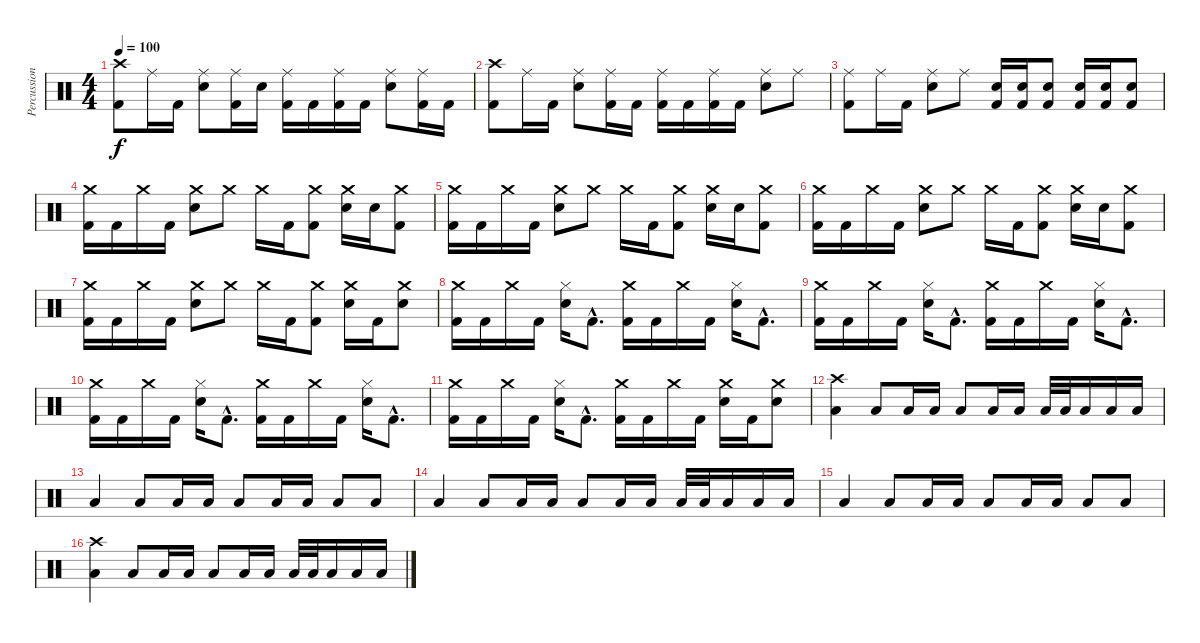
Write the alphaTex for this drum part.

\track ("Percussions" "Percussion") {instrument percussion}
\staff {score}
\articulation defaults
\ts (4 4)
\tempo 100
\clef neutral
\ks c
("Crash high (hit)" "Kick (hit) 2").8{dy f} "Ride (middle)".16 "Kick (hit) 2".16 ("Electric Snare (hit)" "Ride (middle)").8 ("Ride (middle)" "Kick (hit) 2").16 "Electric Snare (hit)".16 ("Ride (middle)" "Kick (hit) 2").16 "Kick (hit) 2".16 ("Ride (middle)" "Kick (hit) 2").16 "Kick (hit) 2".16 ("Electric Snare (hit)" "Ride (middle)").8 ("Ride (middle)" "Kick (hit) 2").16 "Kick (hit) 2".16 |
("Crash high (hit)" "Kick (hit) 2").8 "Ride (middle)".16 "Kick (hit) 2".16 ("Electric Snare (hit)" "Ride (middle)").8 ("Ride (middle)" "Kick (hit) 2").16 "Kick (hit) 2".16 ("Ride (middle)" "Kick (hit) 2").16 "Kick (hit) 2".16 ("Ride (middle)" "Kick (hit) 2").16 "Kick (hit) 2".16 ("Electric Snare (hit)" "Ride (middle)").8 "Ride (middle)".8 |
("Ride (middle)" "Kick (hit) 2").8 "Ride (middle)".16 "Kick (hit) 2".16 ("Electric Snare (hit)" "Ride (middle)").8 "Ride (middle)".8 ("Electric Snare (hit)" "Kick (hit) 2").16 ("Electric Snare (hit)" "Kick (hit) 2").16 ("Electric Snare (hit)" "Kick (hit) 2").8 ("Electric Snare (hit)" "Kick (hit) 2").16 ("Electric Snare (hit)" "Kick (hit) 2").16 ("Electric Snare (hit)" "Kick (hit) 2").8 |
("Crash medium (hit)" "Kick (hit) 2").16 "Kick (hit) 2".16 "Crash medium (hit)".16 "Kick (hit) 2".16 ("Electric Snare (hit)" "Crash medium (hit)").8 "Crash medium (hit)".8 "Crash medium (hit)".16 "Kick (hit) 2".16 ("Crash medium (hit)" "Kick (hit) 2").8 ("Electric Snare (hit)" "Crash medium (hit)").16 "Electric Snare (hit)".16 ("Crash medium (hit)" "Kick (hit) 2").8 |
("Crash medium (hit)" "Kick (hit) 2").16 "Kick (hit) 2".16 "Crash medium (hit)".16 "Kick (hit) 2".16 ("Electric Snare (hit)" "Crash medium (hit)").8 "Crash medium (hit)".8 "Crash medium (hit)".16 "Kick (hit) 2".16 ("Crash medium (hit)" "Kick (hit) 2").8 ("Electric Snare (hit)" "Crash medium (hit)").16 "Electric Snare (hit)".16 ("Crash medium (hit)" "Kick (hit) 2").8 |
("Crash medium (hit)" "Kick (hit) 2").16 "Kick (hit) 2".16 "Crash medium (hit)".16 "Kick (hit) 2".16 ("Electric Snare (hit)" "Crash medium (hit)").8 "Crash medium (hit)".8 "Crash medium (hit)".16 "Kick (hit) 2".16 ("Crash medium (hit)" "Kick (hit) 2").8 ("Electric Snare (hit)" "Crash medium (hit)").16 "Electric Snare (hit)".16 ("Crash medium (hit)" "Kick (hit) 2").8 |
("Crash medium (hit)" "Kick (hit) 2").16 "Kick (hit) 2".16 "Crash medium (hit)".16 "Kick (hit) 2".16 ("Electric Snare (hit)" "Crash medium (hit)").8 "Crash medium (hit)".8 "Crash medium (hit)".16 "Kick (hit) 2".16 ("Crash medium (hit)" "Kick (hit) 2").8 ("Electric Snare (hit)" "Crash medium (hit)").16 "Kick (hit) 2".16 ("Electric Snare (hit)" "Crash medium (hit)").8 |
("Crash medium (hit)" "Kick (hit) 2").16 "Kick (hit) 2".16 "Crash medium (hit)".16 "Kick (hit) 2".16 ("Electric Snare (hit)" "Hi-Hat (closed)").16 "Kick (hit) 2"{hac}.8{d} ("Crash medium (hit)" "Kick (hit) 2").16 "Kick (hit) 2".16 "Crash medium (hit)".16 "Kick (hit) 2".16 ("Electric Snare (hit)" "Hi-Hat (closed)").16 "Kick (hit) 2"{hac}.8{d} |
("Crash medium (hit)" "Kick (hit) 2").16 "Kick (hit) 2".16 "Crash medium (hit)".16 "Kick (hit) 2".16 ("Electric Snare (hit)" "Hi-Hat (closed)").16 "Kick (hit) 2"{hac}.8{d} ("Crash medium (hit)" "Kick (hit) 2").16 "Kick (hit) 2".16 "Crash medium (hit)".16 "Kick (hit) 2".16 ("Electric Snare (hit)" "Hi-Hat (closed)").16 "Kick (hit) 2"{hac}.8{d} |
("Crash medium (hit)" "Kick (hit) 2").16 "Kick (hit) 2".16 "Crash medium (hit)".16 "Kick (hit) 2".16 ("Electric Snare (hit)" "Hi-Hat (closed)").16 "Kick (hit) 2"{hac}.8{d} ("Crash medium (hit)" "Kick (hit) 2").16 "Kick (hit) 2".16 "Crash medium (hit)".16 "Kick (hit) 2".16 ("Electric Snare (hit)" "Hi-Hat (closed)").16 "Kick (hit) 2"{hac}.8{d} |
("Crash medium (hit)" "Kick (hit) 2").16 "Kick (hit) 2".16 "Crash medium (hit)".16 "Kick (hit) 2".16 ("Electric Snare (hit)" "Hi-Hat (closed)").16 "Kick (hit) 2"{hac}.8{d} ("Crash medium (hit)" "Kick (hit) 2").16 "Kick (hit) 2".16 "Crash medium (hit)".16 "Kick (hit) 2".16 ("Electric Snare (hit)" "Crash medium (hit)").16 "Kick (hit) 2".16 ("Electric Snare (hit)" "Crash medium (hit)").8 |
("Crash high (hit)" "Low Floor Tom (hit)").4 "Low Floor Tom (hit)".8 "Low Floor Tom (hit)".16 "Low Floor Tom (hit)".16 "Low Floor Tom (hit)".8 "Low Floor Tom (hit)".16 "Low Floor Tom (hit)".16 "Low Floor Tom (hit)".32 "Low Floor Tom (hit)".32 "Low Floor Tom (hit)".16 "Low Floor Tom (hit)".16 "Low Floor Tom (hit)".16 |
"Low Floor Tom (hit)".4 "Low Floor Tom (hit)".8 "Low Floor Tom (hit)".16 "Low Floor Tom (hit)".16 "Low Floor Tom (hit)".8 "Low Floor Tom (hit)".16 "Low Floor Tom (hit)".16 "Low Floor Tom (hit)".8 "Low Floor Tom (hit)".8 |
"Low Floor Tom (hit)".4 "Low Floor Tom (hit)".8 "Low Floor Tom (hit)".16 "Low Floor Tom (hit)".16 "Low Floor Tom (hit)".8 "Low Floor Tom (hit)".16 "Low Floor Tom (hit)".16 "Low Floor Tom (hit)".32 "Low Floor Tom (hit)".32 "Low Floor Tom (hit)".16 "Low Floor Tom (hit)".16 "Low Floor Tom (hit)".16 |
"Low Floor Tom (hit)".4 "Low Floor Tom (hit)".8 "Low Floor Tom (hit)".16 "Low Floor Tom (hit)".16 "Low Floor Tom (hit)".8 "Low Floor Tom (hit)".16 "Low Floor Tom (hit)".16 "Low Floor Tom (hit)".8 "Low Floor Tom (hit)".8 |
("Crash high (hit)" "Low Floor Tom (hit)").4 "Low Floor Tom (hit)".8 "Low Floor Tom (hit)".16 "Low Floor Tom (hit)".16 "Low Floor Tom (hit)".8 "Low Floor Tom (hit)".16 "Low Floor Tom (hit)".16 "Low Floor Tom (hit)".32 "Low Floor Tom (hit)".32 "Low Floor Tom (hit)".16 "Low Floor Tom (hit)".16 "Low Floor Tom (hit)".16
